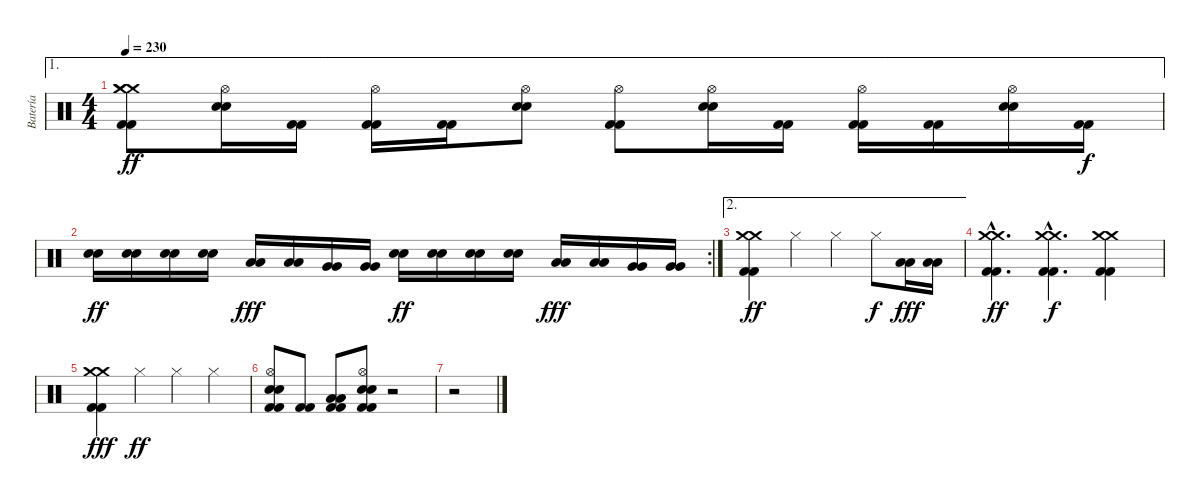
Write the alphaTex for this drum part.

\track ("Batería" "Batería") {instrument percussion}
\staff {score}
\articulation defaults
\ae 1
\ts (4 4)
\tempo 230
\clef neutral
\ks c
("Crash medium (hit)" "Crash medium (hit)" "Crash medium (hit)" "Kick (hit) 2" "Kick (hit) 2").8{dy ff} ("Hi-Hat (open)" "Electric Snare (hit)" "Electric Snare (hit)").16 ("Kick (hit) 2" "Kick (hit) 2").16 ("Hi-Hat (open)" "Kick (hit) 2" "Kick (hit) 2").16 ("Kick (hit) 2" "Kick (hit) 2").16 ("Hi-Hat (open)" "Electric Snare (hit)" "Electric Snare (hit)").8 ("Hi-Hat (open)" "Kick (hit) 2" "Kick (hit) 2").8 ("Hi-Hat (open)" "Electric Snare (hit)" "Electric Snare (hit)").16 ("Kick (hit) 2" "Kick (hit) 2").16 ("Hi-Hat (open)" "Kick (hit) 2" "Kick (hit) 2").16 ("Kick (hit) 2" "Kick (hit) 2").16 ("Hi-Hat (open)" "Electric Snare (hit)" "Electric Snare (hit)").16 ("Kick (hit) 2" "Kick (hit) 2").16{dy f} |
\rc 2
("Electric Snare (hit)" "Electric Snare (hit)").16{dy ff} ("Electric Snare (hit)" "Electric Snare (hit)").16 ("Electric Snare (hit)" "Electric Snare (hit)").16 ("Electric Snare (hit)" "Electric Snare (hit)").16 ("Low Tom (hit)" "Low Tom (hit)").16{dy fff} ("Low Tom (hit)" "Low Tom (hit)").16 ("Very Low Tom (hit)" "Very Low Tom (hit)").16 ("Very Low Tom (hit)" "Very Low Tom (hit)").16 ("Electric Snare (hit)" "Electric Snare (hit)").16{dy ff} ("Electric Snare (hit)" "Electric Snare (hit)").16 ("Electric Snare (hit)" "Electric Snare (hit)").16 ("Electric Snare (hit)" "Electric Snare (hit)").16 ("Low Tom (hit)" "Low Tom (hit)").16{dy fff} ("Low Tom (hit)" "Low Tom (hit)").16 ("Very Low Tom (hit)" "Very Low Tom (hit)").16 ("Very Low Tom (hit)" "Very Low Tom (hit)").16 |
\ae 2
("Crash medium (hit)" "Crash medium (hit)" "Kick (hit) 2" "Kick (hit) 2").4{dy ff} "Hi-Hat (closed)".4 "Hi-Hat (closed)".4 "Hi-Hat (closed)".8{dy f} ("Low Floor Tom (hit)" "Low Floor Tom (hit)").16{dy fff} ("Low Floor Tom (hit)" "Low Floor Tom (hit)").16 |
("Crash medium (hit)"{hac} "Crash medium (hit)"{hac} "Kick (hit) 2"{hac} "Kick (hit) 2"{hac}).4{d dy ff} ("Crash medium (hit)"{hac} "Crash medium (hit)"{hac} "Kick (hit) 2"{hac} "Kick (hit) 2"{hac}).4{d dy f} ("Crash medium (hit)" "Crash medium (hit)" "Kick (hit) 2" "Kick (hit) 2").4 |
("Crash medium (hit)" "Crash medium (hit)" "Kick (hit) 2" "Kick (hit) 2").4{dy fff} "Hi-Hat (closed)".4{dy ff} "Hi-Hat (closed)".4 "Hi-Hat (closed)".4 |
("Hi-Hat (open)" "Electric Snare (hit)" "Electric Snare (hit)" "Kick (hit) 2" "Kick (hit) 2").8 ("Kick (hit) 2" "Kick (hit) 2").8 ("Low Tom (hit)" "Low Tom (hit)" "Kick (hit) 2" "Kick (hit) 2").8 ("Hi-Hat (open)" "Electric Snare (hit)" "Electric Snare (hit)" "Kick (hit) 2" "Kick (hit) 2").8 r.2 |
r.2
